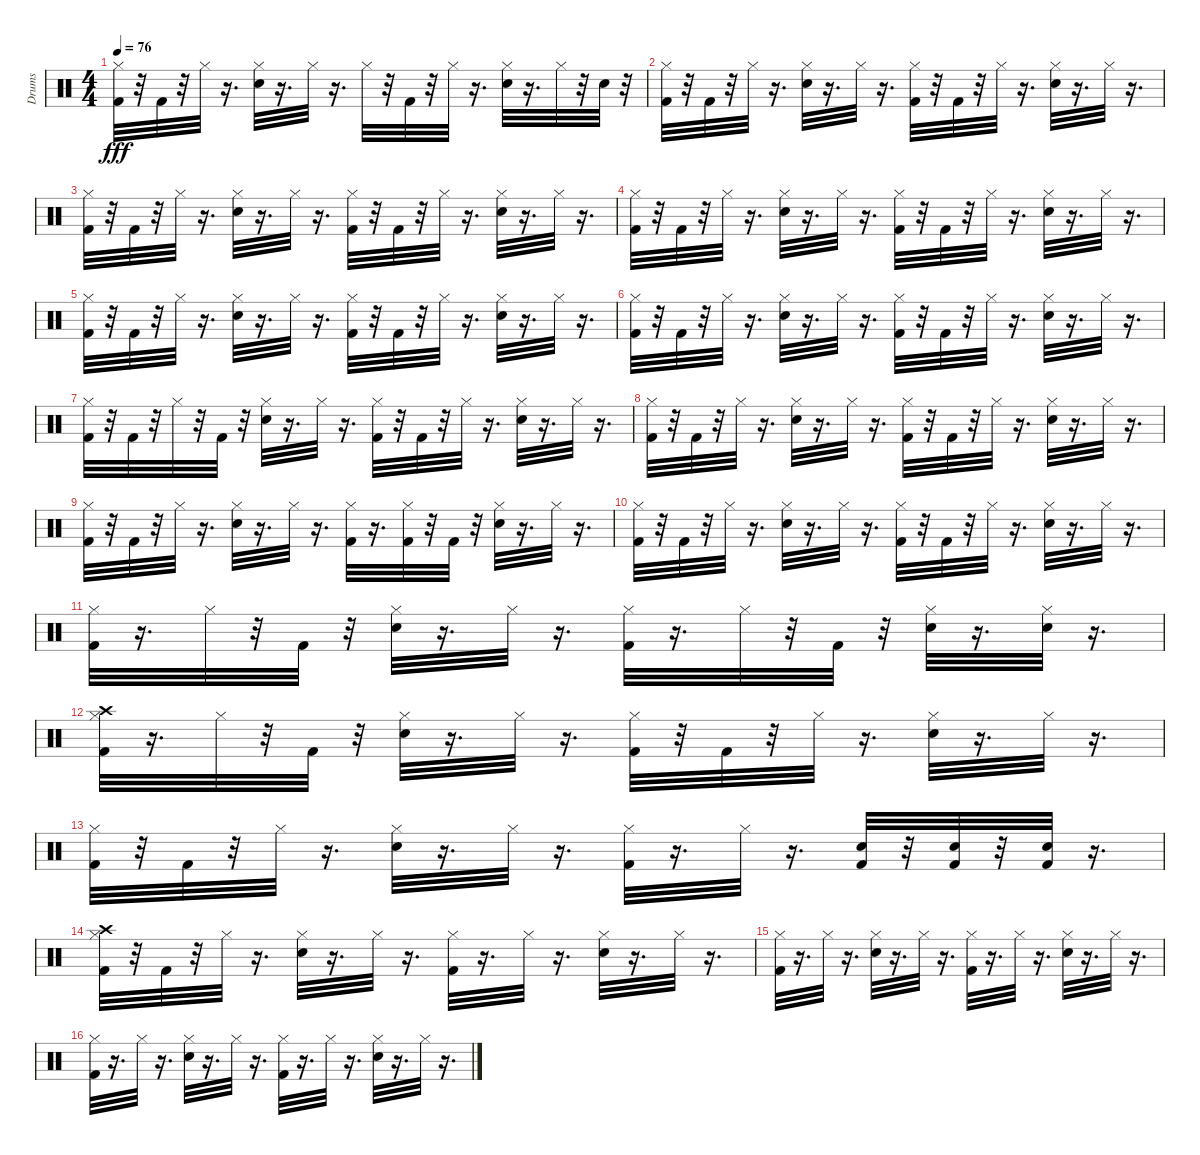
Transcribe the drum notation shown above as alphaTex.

\track ("Drums" "Drums") {instrument percussion}
\staff {score}
\articulation defaults
\ts (4 4)
\tempo 76
\clef neutral
\ks c
("Kick (hit) 2" "Hi-Hat (closed)").32{dy fff} r.32 "Kick (hit) 2".32 r.32 "Hi-Hat (closed)".32 r.16{d} ("Electric Snare (hit)" "Hi-Hat (closed)").32 r.16{d} "Hi-Hat (closed)".32 r.16{d} "Hi-Hat (closed)".32 r.32 "Kick (hit) 2".32 r.32 "Hi-Hat (closed)".32 r.16{d} ("Electric Snare (hit)" "Hi-Hat (closed)").32 r.16{d} "Hi-Hat (closed)".32 r.32 "Electric Snare (hit)".32 r.32 |
("Hi-Hat (closed)" "Kick (hit) 2").32 r.32 "Kick (hit) 2".32 r.32 "Hi-Hat (closed)".32 r.16{d} ("Hi-Hat (closed)" "Electric Snare (hit)").32 r.16{d} "Hi-Hat (closed)".32 r.16{d} ("Hi-Hat (closed)" "Kick (hit) 2").32 r.32 "Kick (hit) 2".32 r.32 "Hi-Hat (closed)".32 r.16{d} ("Hi-Hat (closed)" "Electric Snare (hit)").32 r.16{d} "Hi-Hat (closed)".32 r.16{d} |
("Kick (hit) 2" "Hi-Hat (closed)").32 r.32 "Kick (hit) 2".32 r.32 "Hi-Hat (closed)".32 r.16{d} ("Electric Snare (hit)" "Hi-Hat (closed)").32 r.16{d} "Hi-Hat (closed)".32 r.16{d} ("Kick (hit) 2" "Hi-Hat (closed)").32 r.32 "Kick (hit) 2".32 r.32 "Hi-Hat (closed)".32 r.16{d} ("Electric Snare (hit)" "Hi-Hat (closed)").32 r.16{d} "Hi-Hat (closed)".32 r.16{d} |
("Hi-Hat (closed)" "Kick (hit) 2").32 r.32 "Kick (hit) 2".32 r.32 "Hi-Hat (closed)".32 r.16{d} ("Hi-Hat (closed)" "Electric Snare (hit)").32 r.16{d} "Hi-Hat (closed)".32 r.16{d} ("Hi-Hat (closed)" "Kick (hit) 2").32 r.32 "Kick (hit) 2".32 r.32 "Hi-Hat (closed)".32 r.16{d} ("Hi-Hat (closed)" "Electric Snare (hit)").32 r.16{d} "Hi-Hat (closed)".32 r.16{d} |
("Kick (hit) 2" "Hi-Hat (closed)").32 r.32 "Kick (hit) 2".32 r.32 "Hi-Hat (closed)".32 r.16{d} ("Electric Snare (hit)" "Hi-Hat (closed)").32 r.16{d} "Hi-Hat (closed)".32 r.16{d} ("Kick (hit) 2" "Hi-Hat (closed)").32 r.32 "Kick (hit) 2".32 r.32 "Hi-Hat (closed)".32 r.16{d} ("Electric Snare (hit)" "Hi-Hat (closed)").32 r.16{d} "Hi-Hat (closed)".32 r.16{d} |
("Hi-Hat (closed)" "Kick (hit) 2").32 r.32 "Kick (hit) 2".32 r.32 "Hi-Hat (closed)".32 r.16{d} ("Hi-Hat (closed)" "Electric Snare (hit)").32 r.16{d} "Hi-Hat (closed)".32 r.16{d} ("Hi-Hat (closed)" "Kick (hit) 2").32 r.32 "Kick (hit) 2".32 r.32 "Hi-Hat (closed)".32 r.16{d} ("Hi-Hat (closed)" "Electric Snare (hit)").32 r.16{d} "Hi-Hat (closed)".32 r.16{d} |
("Kick (hit) 2" "Hi-Hat (closed)").32 r.32 "Kick (hit) 2".32 r.32 "Hi-Hat (closed)".32 r.32 "Kick (hit) 2".32 r.32 ("Electric Snare (hit)" "Hi-Hat (closed)").32 r.16{d} "Hi-Hat (closed)".32 r.16{d} ("Kick (hit) 2" "Hi-Hat (closed)").32 r.32 "Kick (hit) 2".32 r.32 "Hi-Hat (closed)".32 r.16{d} ("Electric Snare (hit)" "Hi-Hat (closed)").32 r.16{d} "Hi-Hat (closed)".32 r.16{d} |
("Hi-Hat (closed)" "Kick (hit) 2").32 r.32 "Kick (hit) 2".32 r.32 "Hi-Hat (closed)".32 r.16{d} ("Hi-Hat (closed)" "Electric Snare (hit)").32 r.16{d} "Hi-Hat (closed)".32 r.16{d} ("Hi-Hat (closed)" "Kick (hit) 2").32 r.32 "Kick (hit) 2".32 r.32 "Hi-Hat (closed)".32 r.16{d} ("Hi-Hat (closed)" "Electric Snare (hit)").32 r.16{d} "Hi-Hat (closed)".32 r.16{d} |
("Kick (hit) 2" "Hi-Hat (closed)").32 r.32 "Kick (hit) 2".32 r.32 "Hi-Hat (closed)".32 r.16{d} ("Electric Snare (hit)" "Hi-Hat (closed)").32 r.16{d} "Hi-Hat (closed)".32 r.16{d} ("Kick (hit) 2" "Hi-Hat (closed)").32 r.16{d} ("Kick (hit) 2" "Hi-Hat (closed)").32 r.32 "Kick (hit) 2".32 r.32 ("Electric Snare (hit)" "Hi-Hat (closed)").32 r.16{d} "Hi-Hat (closed)".32 r.16{d} |
("Hi-Hat (closed)" "Kick (hit) 2").32 r.32 "Kick (hit) 2".32 r.32 "Hi-Hat (closed)".32 r.16{d} ("Hi-Hat (closed)" "Electric Snare (hit)").32 r.16{d} "Hi-Hat (closed)".32 r.16{d} ("Hi-Hat (closed)" "Kick (hit) 2").32 r.32 "Kick (hit) 2".32 r.32 "Hi-Hat (closed)".32 r.16{d} ("Hi-Hat (closed)" "Electric Snare (hit)").32 r.16{d} "Hi-Hat (closed)".32 r.16{d} |
("Kick (hit) 2" "Hi-Hat (closed)").32 r.16{d} "Hi-Hat (closed)".32 r.32 "Kick (hit) 2".32 r.32 ("Electric Snare (hit)" "Hi-Hat (closed)").32 r.16{d} "Hi-Hat (closed)".32 r.16{d} ("Kick (hit) 2" "Hi-Hat (closed)").32 r.16{d} "Hi-Hat (closed)".32 r.32 "Kick (hit) 2".32 r.32 ("Electric Snare (hit)" "Hi-Hat (closed)").32 r.16{d} ("Electric Snare (hit)" "Hi-Hat (closed)").32 r.16{d} |
("Crash high (hit)" "Hi-Hat (closed)" "Kick (hit) 2").32 r.16{d} "Hi-Hat (closed)".32 r.32 "Kick (hit) 2".32 r.32 ("Hi-Hat (closed)" "Electric Snare (hit)").32 r.16{d} "Hi-Hat (closed)".32 r.16{d} ("Hi-Hat (closed)" "Kick (hit) 2").32 r.32 "Kick (hit) 2".32 r.32 "Hi-Hat (closed)".32 r.16{d} ("Hi-Hat (closed)" "Electric Snare (hit)").32 r.16{d} "Hi-Hat (closed)".32 r.16{d} |
("Kick (hit) 2" "Hi-Hat (closed)").32 r.32 "Kick (hit) 2".32 r.32 "Hi-Hat (closed)".32 r.16{d} ("Electric Snare (hit)" "Hi-Hat (closed)").32 r.16{d} "Hi-Hat (closed)".32 r.16{d} ("Kick (hit) 2" "Hi-Hat (closed)").32 r.16{d} "Hi-Hat (closed)".32 r.16{d} ("Kick (hit) 2" "Electric Snare (hit)").32 r.32 ("Kick (hit) 2" "Electric Snare (hit)").32 r.32 ("Kick (hit) 2" "Electric Snare (hit)").32 r.16{d} |
("Crash high (hit)" "Hi-Hat (closed)" "Kick (hit) 2").32 r.32 "Kick (hit) 2".32 r.32 "Hi-Hat (closed)".32 r.16{d} ("Hi-Hat (closed)" "Electric Snare (hit)").32 r.16{d} "Hi-Hat (closed)".32 r.16{d} ("Kick (hit) 2" "Hi-Hat (closed)").32 r.16{d} "Hi-Hat (closed)".32 r.16{d} ("Hi-Hat (closed)" "Electric Snare (hit)").32 r.16{d} "Hi-Hat (closed)".32 r.16{d} |
("Kick (hit) 2" "Hi-Hat (closed)").32 r.16{d} "Hi-Hat (closed)".32 r.16{d} ("Electric Snare (hit)" "Hi-Hat (closed)").32 r.16{d} "Hi-Hat (closed)".32 r.16{d} ("Kick (hit) 2" "Hi-Hat (closed)").32 r.16{d} "Hi-Hat (closed)".32 r.16{d} ("Hi-Hat (closed)" "Electric Snare (hit)").32 r.16{d} "Hi-Hat (closed)".32 r.16{d} |
("Hi-Hat (closed)" "Kick (hit) 2").32 r.16{d} "Hi-Hat (closed)".32 r.16{d} ("Hi-Hat (closed)" "Electric Snare (hit)").32 r.16{d} "Hi-Hat (closed)".32 r.16{d} ("Kick (hit) 2" "Hi-Hat (closed)").32 r.16{d} "Hi-Hat (closed)".32 r.16{d} ("Hi-Hat (closed)" "Electric Snare (hit)").32 r.16{d} "Hi-Hat (closed)".32 r.16{d}
